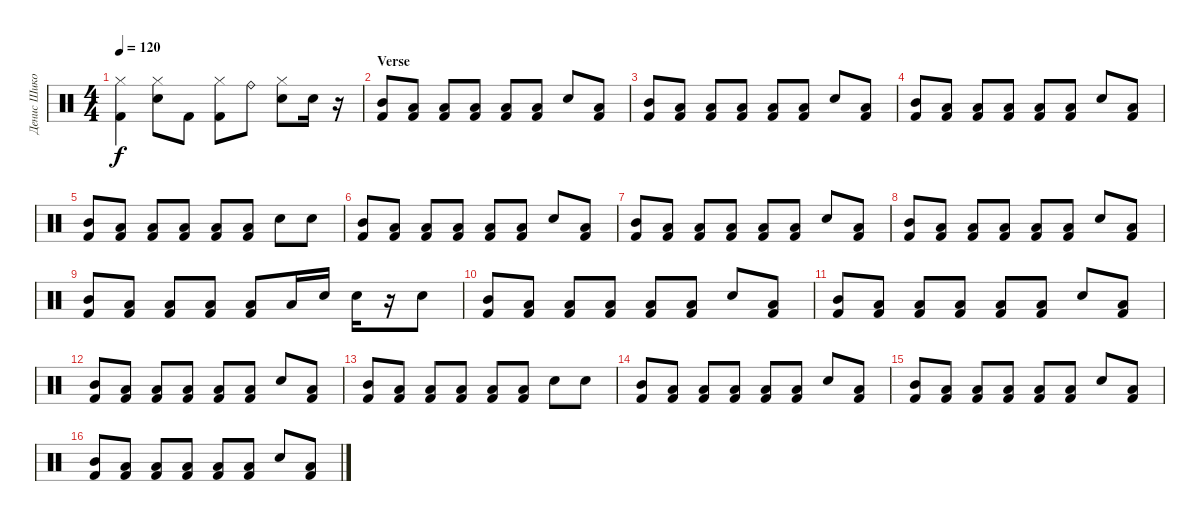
\track ("Денис Шиков" "Денис Шико") {instrument percussion}
\staff {score}
\articulation defaults
\ts (4 4)
\tempo 120
\clef neutral
\ks c
("Hi-Hat (closed)" "Kick (hit) 2").4{dy f} ("Hi-Hat (closed)" "Electric Snare (hit)").8 "Kick (hit) 2".8 ("Hi-Hat (closed)" "Kick (hit) 2").8 "Ride (bell)".8 ("Hi-Hat (closed)" "Electric Snare (hit)").8 "Electric Snare (hit)".16 r.16 |
\section ("" "Verse")
("Mid Tom (hit)" "Kick (hit) 2").8 ("Low Floor Tom (hit)" "Kick (hit) 2").8 ("Low Floor Tom (hit)" "Kick (hit) 2").8 ("Low Tom (hit)" "Kick (hit) 2").8 ("Low Floor Tom (hit)" "Kick (hit) 2").8 ("Low Floor Tom (hit)" "Kick (hit) 2").8 "Electric Snare (hit)".8 ("Low Floor Tom (hit)" "Kick (hit) 2").8 |
("Mid Tom (hit)" "Kick (hit) 2").8 ("Low Floor Tom (hit)" "Kick (hit) 2").8 ("Low Floor Tom (hit)" "Kick (hit) 2").8 ("Low Tom (hit)" "Kick (hit) 2").8 ("Low Floor Tom (hit)" "Kick (hit) 2").8 ("Low Floor Tom (hit)" "Kick (hit) 2").8 "Electric Snare (hit)".8 ("Low Floor Tom (hit)" "Kick (hit) 2").8 |
("Mid Tom (hit)" "Kick (hit) 2").8 ("Low Floor Tom (hit)" "Kick (hit) 2").8 ("Low Floor Tom (hit)" "Kick (hit) 2").8 ("Low Tom (hit)" "Kick (hit) 2").8 ("Low Floor Tom (hit)" "Kick (hit) 2").8 ("Low Floor Tom (hit)" "Kick (hit) 2").8 "Electric Snare (hit)".8 ("Low Floor Tom (hit)" "Kick (hit) 2").8 |
("Mid Tom (hit)" "Kick (hit) 2").8 ("Low Floor Tom (hit)" "Kick (hit) 2").8 ("Low Floor Tom (hit)" "Kick (hit) 2").8 ("Low Tom (hit)" "Kick (hit) 2").8 ("Low Floor Tom (hit)" "Kick (hit) 2").8 ("Low Floor Tom (hit)" "Kick (hit) 2").8 "Electric Snare (hit)".8 "Electric Snare (hit)".8 |
("Mid Tom (hit)" "Kick (hit) 2").8 ("Low Floor Tom (hit)" "Kick (hit) 2").8 ("Low Floor Tom (hit)" "Kick (hit) 2").8 ("Low Tom (hit)" "Kick (hit) 2").8 ("Low Floor Tom (hit)" "Kick (hit) 2").8 ("Low Floor Tom (hit)" "Kick (hit) 2").8 "Electric Snare (hit)".8 ("Low Floor Tom (hit)" "Kick (hit) 2").8 |
("Mid Tom (hit)" "Kick (hit) 2").8 ("Low Floor Tom (hit)" "Kick (hit) 2").8 ("Low Floor Tom (hit)" "Kick (hit) 2").8 ("Low Tom (hit)" "Kick (hit) 2").8 ("Low Floor Tom (hit)" "Kick (hit) 2").8 ("Low Floor Tom (hit)" "Kick (hit) 2").8 "Electric Snare (hit)".8 ("Low Floor Tom (hit)" "Kick (hit) 2").8 |
("Mid Tom (hit)" "Kick (hit) 2").8 ("Low Floor Tom (hit)" "Kick (hit) 2").8 ("Low Floor Tom (hit)" "Kick (hit) 2").8 ("Low Tom (hit)" "Kick (hit) 2").8 ("Low Floor Tom (hit)" "Kick (hit) 2").8 ("Low Floor Tom (hit)" "Kick (hit) 2").8 "Electric Snare (hit)".8 ("Low Floor Tom (hit)" "Kick (hit) 2").8 |
("Mid Tom (hit)" "Kick (hit) 2").8 ("Low Floor Tom (hit)" "Kick (hit) 2").8 ("Low Floor Tom (hit)" "Kick (hit) 2").8 ("Low Tom (hit)" "Kick (hit) 2").8 ("Low Floor Tom (hit)" "Kick (hit) 2").8 "Low Floor Tom (hit)".16 "Electric Snare (hit)".16 "Electric Snare (hit)".16 r.16 "Electric Snare (hit)".8 |
("Mid Tom (hit)" "Kick (hit) 2").8 ("Low Floor Tom (hit)" "Kick (hit) 2").8 ("Low Floor Tom (hit)" "Kick (hit) 2").8 ("Low Tom (hit)" "Kick (hit) 2").8 ("Low Floor Tom (hit)" "Kick (hit) 2").8 ("Low Floor Tom (hit)" "Kick (hit) 2").8 "Electric Snare (hit)".8 ("Low Floor Tom (hit)" "Kick (hit) 2").8 |
("Mid Tom (hit)" "Kick (hit) 2").8 ("Low Floor Tom (hit)" "Kick (hit) 2").8 ("Low Floor Tom (hit)" "Kick (hit) 2").8 ("Low Tom (hit)" "Kick (hit) 2").8 ("Low Floor Tom (hit)" "Kick (hit) 2").8 ("Low Floor Tom (hit)" "Kick (hit) 2").8 "Electric Snare (hit)".8 ("Low Floor Tom (hit)" "Kick (hit) 2").8 |
("Mid Tom (hit)" "Kick (hit) 2").8 ("Low Floor Tom (hit)" "Kick (hit) 2").8 ("Low Floor Tom (hit)" "Kick (hit) 2").8 ("Low Tom (hit)" "Kick (hit) 2").8 ("Low Floor Tom (hit)" "Kick (hit) 2").8 ("Low Floor Tom (hit)" "Kick (hit) 2").8 "Electric Snare (hit)".8 ("Low Floor Tom (hit)" "Kick (hit) 2").8 |
("Mid Tom (hit)" "Kick (hit) 2").8 ("Low Floor Tom (hit)" "Kick (hit) 2").8 ("Low Floor Tom (hit)" "Kick (hit) 2").8 ("Low Tom (hit)" "Kick (hit) 2").8 ("Low Floor Tom (hit)" "Kick (hit) 2").8 ("Low Floor Tom (hit)" "Kick (hit) 2").8 "Electric Snare (hit)".8 "Electric Snare (hit)".8 |
("Mid Tom (hit)" "Kick (hit) 2").8 ("Low Floor Tom (hit)" "Kick (hit) 2").8 ("Low Floor Tom (hit)" "Kick (hit) 2").8 ("Low Tom (hit)" "Kick (hit) 2").8 ("Low Floor Tom (hit)" "Kick (hit) 2").8 ("Low Floor Tom (hit)" "Kick (hit) 2").8 "Electric Snare (hit)".8 ("Low Floor Tom (hit)" "Kick (hit) 2").8 |
("Mid Tom (hit)" "Kick (hit) 2").8 ("Low Floor Tom (hit)" "Kick (hit) 2").8 ("Low Floor Tom (hit)" "Kick (hit) 2").8 ("Low Tom (hit)" "Kick (hit) 2").8 ("Low Floor Tom (hit)" "Kick (hit) 2").8 ("Low Floor Tom (hit)" "Kick (hit) 2").8 "Electric Snare (hit)".8 ("Low Floor Tom (hit)" "Kick (hit) 2").8 |
("Mid Tom (hit)" "Kick (hit) 2").8 ("Low Floor Tom (hit)" "Kick (hit) 2").8 ("Low Floor Tom (hit)" "Kick (hit) 2").8 ("Low Tom (hit)" "Kick (hit) 2").8 ("Low Floor Tom (hit)" "Kick (hit) 2").8 ("Low Floor Tom (hit)" "Kick (hit) 2").8 "Electric Snare (hit)".8 ("Low Floor Tom (hit)" "Kick (hit) 2").8
